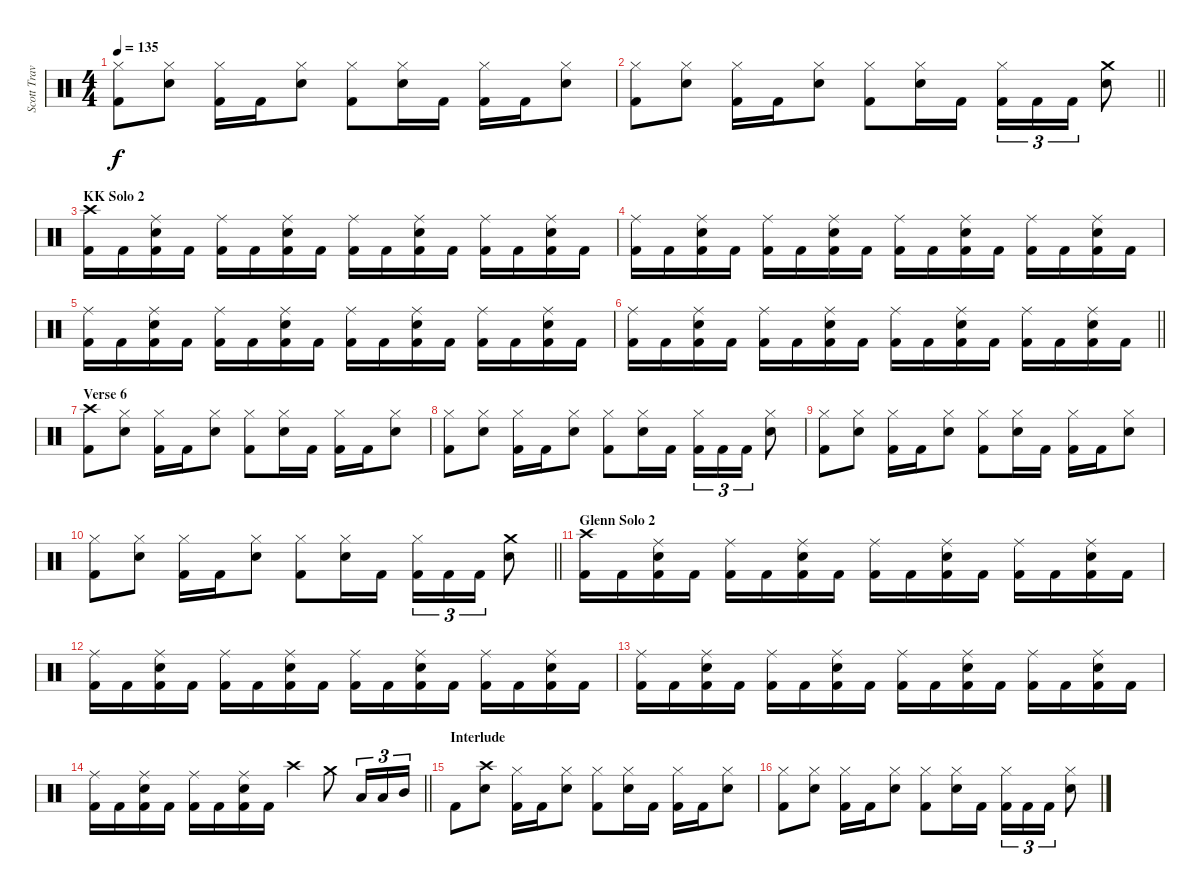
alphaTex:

\track ("Scott Travis" "Scott Trav") {instrument percussion}
\staff {score}
\articulation defaults
\ts (4 4)
\tempo 135
\clef neutral
\ks c
("Hi-Hat (closed)" "Kick (hit) 2").8{dy f} ("Hi-Hat (closed)" "Snare (hit) 2").8 ("Hi-Hat (closed)" "Kick (hit) 2").16 "Kick (hit) 2".16 ("Hi-Hat (closed)" "Snare (hit) 2").8 ("Hi-Hat (closed)" "Kick (hit) 2").8 ("Hi-Hat (closed)" "Snare (hit) 2").16 "Kick (hit) 2".16 ("Hi-Hat (closed)" "Kick (hit) 2").16 "Kick (hit) 2".16 ("Hi-Hat (closed)" "Snare (hit) 2").8 |
\barLineRight lightlight
("Hi-Hat (closed)" "Kick (hit) 2").8 ("Hi-Hat (closed)" "Snare (hit) 2").8 ("Hi-Hat (closed)" "Kick (hit) 2").16 "Kick (hit) 2".16 ("Hi-Hat (closed)" "Snare (hit) 2").8 ("Hi-Hat (closed)" "Kick (hit) 2").8 ("Hi-Hat (closed)" "Snare (hit) 2").16 "Kick (hit) 2".16 ("Hi-Hat (closed)" "Kick (hit) 2").16{tu (3 2)} "Kick (hit) 2".16{tu (3 2)} "Kick (hit) 2".16{tu (3 2)} ("Crash medium (hit)" "Snare (hit) 2").8 |
\section ("" "KK Solo 2")
("Crash high (hit)" "Kick (hit) 2").16 "Kick (hit) 2".16 ("Ride (middle)" "Snare (hit) 2" "Kick (hit) 2").16 "Kick (hit) 2".16 ("Ride (middle)" "Kick (hit) 2").16 "Kick (hit) 2".16 ("Ride (middle)" "Snare (hit) 2" "Kick (hit) 2").16 "Kick (hit) 2".16 ("Ride (middle)" "Kick (hit) 2").16 "Kick (hit) 2".16 ("Ride (middle)" "Snare (hit) 2" "Kick (hit) 2").16 "Kick (hit) 2".16 ("Ride (middle)" "Kick (hit) 2").16 "Kick (hit) 2".16 ("Ride (middle)" "Snare (hit) 2" "Kick (hit) 2").16 "Kick (hit) 2".16 |
("Ride (middle)" "Kick (hit) 2").16 "Kick (hit) 2".16 ("Ride (middle)" "Snare (hit) 2" "Kick (hit) 2").16 "Kick (hit) 2".16 ("Ride (middle)" "Kick (hit) 2").16 "Kick (hit) 2".16 ("Ride (middle)" "Snare (hit) 2" "Kick (hit) 2").16 "Kick (hit) 2".16 ("Ride (middle)" "Kick (hit) 2").16 "Kick (hit) 2".16 ("Ride (middle)" "Snare (hit) 2" "Kick (hit) 2").16 "Kick (hit) 2".16 ("Ride (middle)" "Kick (hit) 2").16 "Kick (hit) 2".16 ("Ride (middle)" "Snare (hit) 2" "Kick (hit) 2").16 "Kick (hit) 2".16 |
("Ride (middle)" "Kick (hit) 2").16 "Kick (hit) 2".16 ("Ride (middle)" "Snare (hit) 2" "Kick (hit) 2").16 "Kick (hit) 2".16 ("Ride (middle)" "Kick (hit) 2").16 "Kick (hit) 2".16 ("Ride (middle)" "Snare (hit) 2" "Kick (hit) 2").16 "Kick (hit) 2".16 ("Ride (middle)" "Kick (hit) 2").16 "Kick (hit) 2".16 ("Ride (middle)" "Snare (hit) 2" "Kick (hit) 2").16 "Kick (hit) 2".16 ("Ride (middle)" "Kick (hit) 2").16 "Kick (hit) 2".16 ("Ride (middle)" "Snare (hit) 2" "Kick (hit) 2").16 "Kick (hit) 2".16 |
\barLineRight lightlight
("Ride (middle)" "Kick (hit) 2").16 "Kick (hit) 2".16 ("Ride (middle)" "Snare (hit) 2" "Kick (hit) 2").16 "Kick (hit) 2".16 ("Ride (middle)" "Kick (hit) 2").16 "Kick (hit) 2".16 ("Ride (middle)" "Snare (hit) 2" "Kick (hit) 2").16 "Kick (hit) 2".16 ("Ride (middle)" "Kick (hit) 2").16 "Kick (hit) 2".16 ("Ride (middle)" "Snare (hit) 2" "Kick (hit) 2").16 "Kick (hit) 2".16 ("Ride (middle)" "Kick (hit) 2").16 "Kick (hit) 2".16 ("Ride (middle)" "Snare (hit) 2" "Kick (hit) 2").16 "Kick (hit) 2".16 |
\section ("" "Verse 6")
("Crash high (hit)" "Kick (hit) 2").8 ("Hi-Hat (closed)" "Snare (hit) 2").8 ("Hi-Hat (closed)" "Kick (hit) 2").16 "Kick (hit) 2".16 ("Hi-Hat (closed)" "Snare (hit) 2").8 ("Hi-Hat (closed)" "Kick (hit) 2").8 ("Hi-Hat (closed)" "Snare (hit) 2").16 "Kick (hit) 2".16 ("Hi-Hat (closed)" "Kick (hit) 2").16 "Kick (hit) 2".16 ("Hi-Hat (closed)" "Snare (hit) 2").8 |
("Hi-Hat (closed)" "Kick (hit) 2").8 ("Hi-Hat (closed)" "Snare (hit) 2").8 ("Hi-Hat (closed)" "Kick (hit) 2").16 "Kick (hit) 2".16 ("Hi-Hat (closed)" "Snare (hit) 2").8 ("Hi-Hat (closed)" "Kick (hit) 2").8 ("Hi-Hat (closed)" "Snare (hit) 2").16 "Kick (hit) 2".16 ("Hi-Hat (closed)" "Kick (hit) 2").16{tu (3 2)} "Kick (hit) 2".16{tu (3 2)} "Kick (hit) 2".16{tu (3 2)} ("Hi-Hat (closed)" "Snare (hit) 2").8 |
("Hi-Hat (closed)" "Kick (hit) 2").8 ("Hi-Hat (closed)" "Snare (hit) 2").8 ("Hi-Hat (closed)" "Kick (hit) 2").16 "Kick (hit) 2".16 ("Hi-Hat (closed)" "Snare (hit) 2").8 ("Hi-Hat (closed)" "Kick (hit) 2").8 ("Hi-Hat (closed)" "Snare (hit) 2").16 "Kick (hit) 2".16 ("Hi-Hat (closed)" "Kick (hit) 2").16 "Kick (hit) 2".16 ("Hi-Hat (closed)" "Snare (hit) 2").8 |
\barLineRight lightlight
("Hi-Hat (closed)" "Kick (hit) 2").8 ("Hi-Hat (closed)" "Snare (hit) 2").8 ("Hi-Hat (closed)" "Kick (hit) 2").16 "Kick (hit) 2".16 ("Hi-Hat (closed)" "Snare (hit) 2").8 ("Hi-Hat (closed)" "Kick (hit) 2").8 ("Hi-Hat (closed)" "Snare (hit) 2").16 "Kick (hit) 2".16 ("Hi-Hat (closed)" "Kick (hit) 2").16{tu (3 2)} "Kick (hit) 2".16{tu (3 2)} "Kick (hit) 2".16{tu (3 2)} ("Crash medium (hit)" "Snare (hit) 2").8 |
\section ("" "Glenn Solo 2")
("Crash high (hit)" "Kick (hit) 2").16 "Kick (hit) 2".16 ("Ride (middle)" "Snare (hit) 2" "Kick (hit) 2").16 "Kick (hit) 2".16 ("Ride (middle)" "Kick (hit) 2").16 "Kick (hit) 2".16 ("Ride (middle)" "Snare (hit) 2" "Kick (hit) 2").16 "Kick (hit) 2".16 ("Ride (middle)" "Kick (hit) 2").16 "Kick (hit) 2".16 ("Ride (middle)" "Snare (hit) 2" "Kick (hit) 2").16 "Kick (hit) 2".16 ("Ride (middle)" "Kick (hit) 2").16 "Kick (hit) 2".16 ("Ride (middle)" "Snare (hit) 2" "Kick (hit) 2").16 "Kick (hit) 2".16 |
("Ride (middle)" "Kick (hit) 2").16 "Kick (hit) 2".16 ("Ride (middle)" "Snare (hit) 2" "Kick (hit) 2").16 "Kick (hit) 2".16 ("Ride (middle)" "Kick (hit) 2").16 "Kick (hit) 2".16 ("Ride (middle)" "Snare (hit) 2" "Kick (hit) 2").16 "Kick (hit) 2".16 ("Ride (middle)" "Kick (hit) 2").16 "Kick (hit) 2".16 ("Ride (middle)" "Snare (hit) 2" "Kick (hit) 2").16 "Kick (hit) 2".16 ("Ride (middle)" "Kick (hit) 2").16 "Kick (hit) 2".16 ("Ride (middle)" "Snare (hit) 2" "Kick (hit) 2").16 "Kick (hit) 2".16 |
("Ride (middle)" "Kick (hit) 2").16 "Kick (hit) 2".16 ("Ride (middle)" "Snare (hit) 2" "Kick (hit) 2").16 "Kick (hit) 2".16 ("Ride (middle)" "Kick (hit) 2").16 "Kick (hit) 2".16 ("Ride (middle)" "Snare (hit) 2" "Kick (hit) 2").16 "Kick (hit) 2".16 ("Ride (middle)" "Kick (hit) 2").16 "Kick (hit) 2".16 ("Ride (middle)" "Snare (hit) 2" "Kick (hit) 2").16 "Kick (hit) 2".16 ("Ride (middle)" "Kick (hit) 2").16 "Kick (hit) 2".16 ("Ride (middle)" "Snare (hit) 2" "Kick (hit) 2").16 "Kick (hit) 2".16 |
\barLineRight lightlight
("Ride (middle)" "Kick (hit) 2").16 "Kick (hit) 2".16 ("Ride (middle)" "Snare (hit) 2" "Kick (hit) 2").16 "Kick (hit) 2".16 ("Ride (middle)" "Kick (hit) 2").16 "Kick (hit) 2".16 ("Ride (middle)" "Snare (hit) 2" "Kick (hit) 2").16 "Kick (hit) 2".16 "Crash high (hit)".4 "Crash medium (hit)".8 "Low Tom (hit)".16{tu (3 2)} "Low Tom (hit)".16{tu (3 2)} "Mid Tom (hit)".16{tu (3 2)} |
\section ("" "Interlude")
"Kick (hit) 2".8 ("Crash high (hit)" "Snare (hit) 2").8 ("Hi-Hat (closed)" "Kick (hit) 2").16 "Kick (hit) 2".16 ("Hi-Hat (closed)" "Snare (hit) 2").8 ("Hi-Hat (closed)" "Kick (hit) 2").8 ("Hi-Hat (closed)" "Snare (hit) 2").16 "Kick (hit) 2".16 ("Hi-Hat (closed)" "Kick (hit) 2").16 "Kick (hit) 2".16 ("Hi-Hat (closed)" "Snare (hit) 2").8 |
("Hi-Hat (closed)" "Kick (hit) 2").8 ("Hi-Hat (closed)" "Snare (hit) 2").8 ("Hi-Hat (closed)" "Kick (hit) 2").16 "Kick (hit) 2".16 ("Hi-Hat (closed)" "Snare (hit) 2").8 ("Hi-Hat (closed)" "Kick (hit) 2").8 ("Hi-Hat (closed)" "Snare (hit) 2").16 "Kick (hit) 2".16 ("Hi-Hat (closed)" "Kick (hit) 2").16{tu (3 2)} "Kick (hit) 2".16{tu (3 2)} "Kick (hit) 2".16{tu (3 2)} ("Hi-Hat (closed)" "Snare (hit) 2").8
